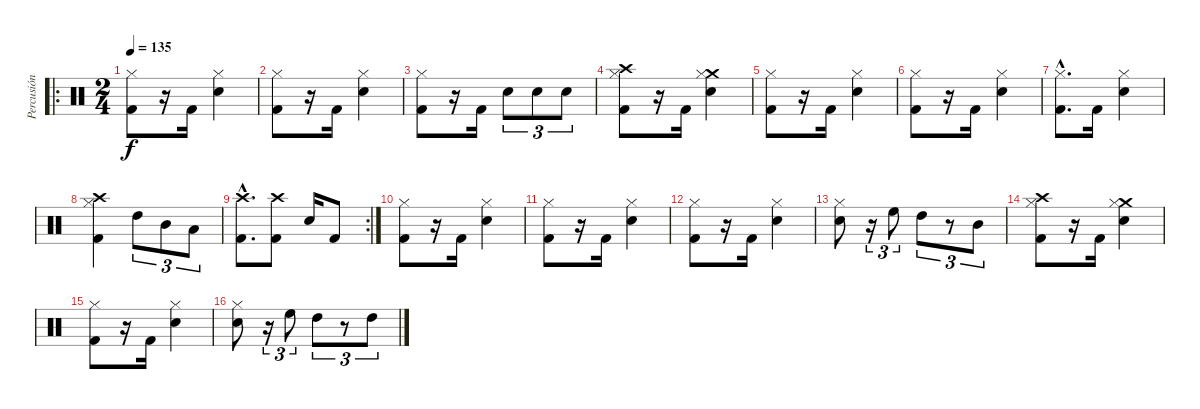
\track ("Percusión" "Percusión") {instrument percussion}
\staff {score}
\articulation defaults
\ro
\ts (2 4)
\tempo 135
\clef neutral
\ks c
("Hi-Hat (closed)" "Kick (hit) 2").8{dy f} r.16 "Kick (hit) 2".16 ("Hi-Hat (closed)" "Snare (hit) 2").4 |
("Hi-Hat (closed)" "Kick (hit) 2").8 r.16 "Kick (hit) 2".16 ("Hi-Hat (closed)" "Snare (hit) 2").4 |
("Hi-Hat (closed)" "Kick (hit) 2").8 r.16 "Kick (hit) 2".16 "Snare (hit) 2".8{tu (3 2)} "Snare (hit) 2".8{tu (3 2)} "Snare (hit) 2".8{tu (3 2)} |
("Crash high (hit)" "Hi-Hat (closed)" "Kick (hit) 2").8 r.16 "Kick (hit) 2".16 ("Crash medium (hit)" "Hi-Hat (closed)" "Snare (hit) 2").4 |
("Hi-Hat (closed)" "Kick (hit) 2").8 r.16 "Kick (hit) 2".16 ("Hi-Hat (closed)" "Snare (hit) 2").4 |
("Hi-Hat (closed)" "Kick (hit) 2").8 r.16 "Kick (hit) 2".16 ("Hi-Hat (closed)" "Snare (hit) 2").4 |
("Hi-Hat (closed)"{hac} "Kick (hit) 2"{hac}).8{d} "Kick (hit) 2".16 ("Hi-Hat (closed)" "Snare (hit) 2").4 |
("Crash high (hit)" "Hi-Hat (closed)" "Kick (hit) 2").4 "High Tom (hit)".8{tu (3 2)} "Mid Tom (hit)".8{tu (3 2)} "Low Tom (hit)".8{tu (3 2)} |
\rc 2
("Crash high (hit)"{hac} "Kick (hit) 2"{hac}).8{d} ("Crash high (hit)" "Kick (hit) 2").8 "Snare (hit) 2".16 "Kick (hit) 2".8 |
("Hi-Hat (closed)" "Kick (hit) 2").8 r.16 "Kick (hit) 2".16 ("Hi-Hat (closed)" "Snare (hit) 2").4 |
("Hi-Hat (closed)" "Kick (hit) 2").8 r.16 "Kick (hit) 2".16 ("Hi-Hat (closed)" "Snare (hit) 2").4 |
("Hi-Hat (closed)" "Kick (hit) 2").8 r.16 "Kick (hit) 2".16 ("Hi-Hat (closed)" "Snare (hit) 2").4 |
("Hi-Hat (closed)" "Snare (hit) 2").8 r.16{tu (3 2)} "High Floor Tom (hit)".8{tu (3 2)} "High Tom (hit)".8{tu (3 2)} r.8{tu (3 2)} "Mid Tom (hit)".8{tu (3 2)} |
("Crash high (hit)" "Hi-Hat (closed)" "Kick (hit) 2").8 r.16 "Kick (hit) 2".16 ("Crash medium (hit)" "Hi-Hat (closed)" "Snare (hit) 2").4 |
("Hi-Hat (closed)" "Kick (hit) 2").8 r.16 "Kick (hit) 2".16 ("Hi-Hat (closed)" "Snare (hit) 2").4 |
("Hi-Hat (closed)" "Snare (hit) 2").8 r.16{tu (3 2)} "High Floor Tom (hit)".8{tu (3 2)} "High Tom (hit)".8{tu (3 2)} r.8{tu (3 2)} "High Tom (hit)".8{tu (3 2)}
